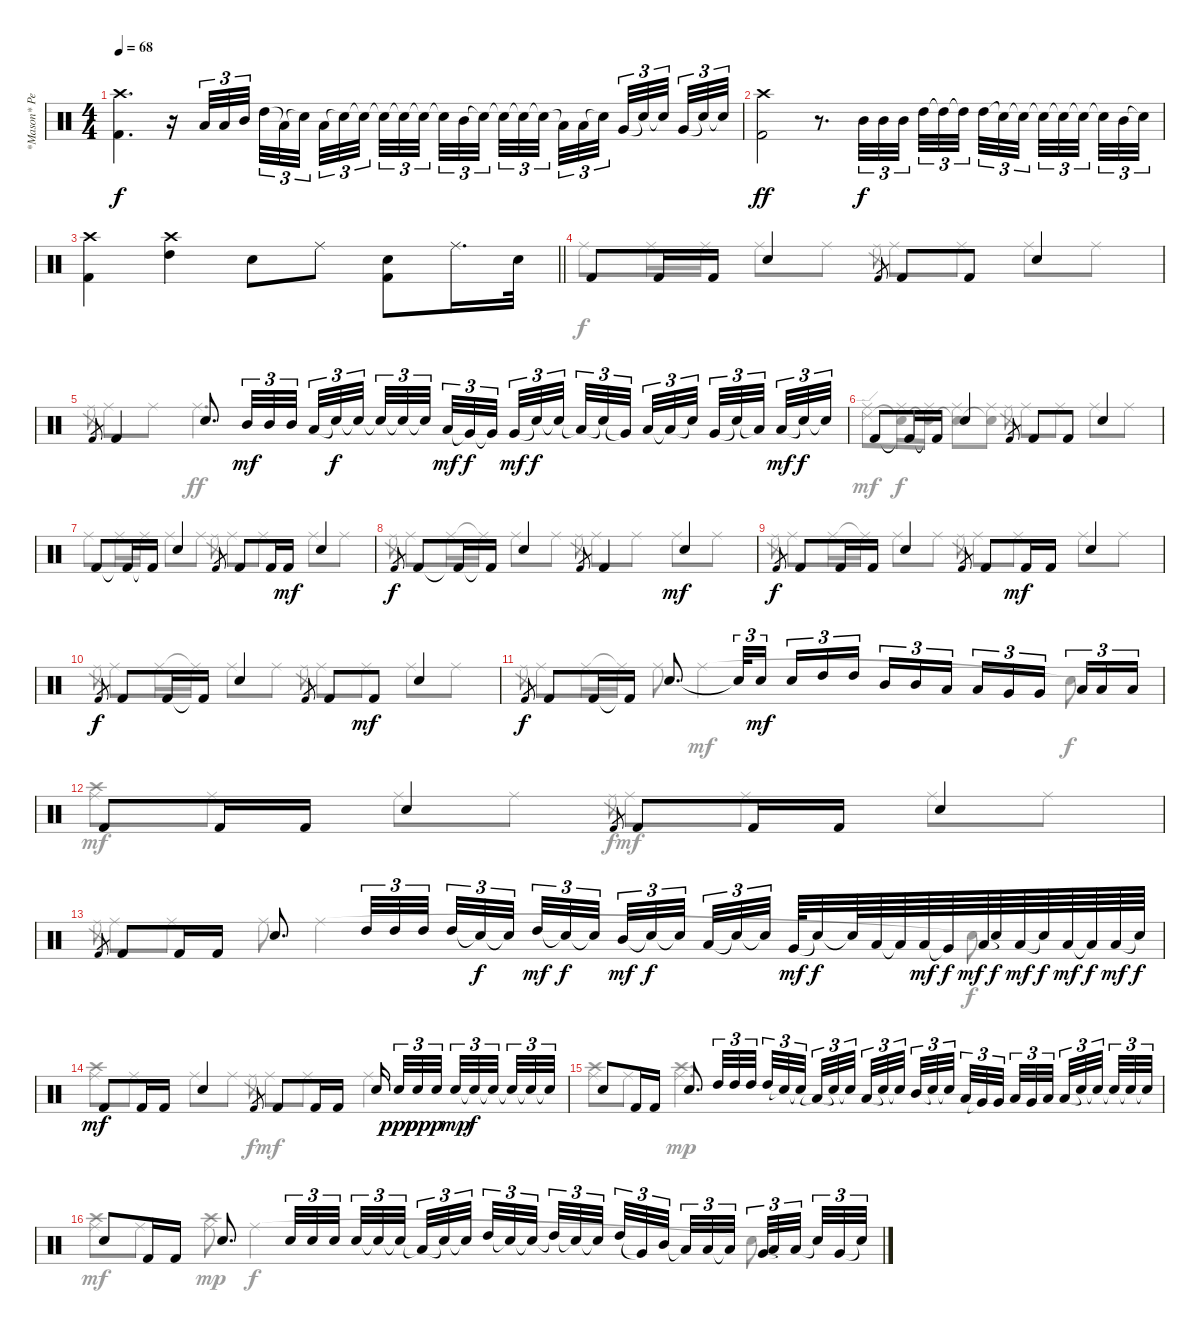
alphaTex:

\track ("*Mason* Percussion" "*Mason* Pe") {instrument percussion}
\staff {score}
\articulation defaults
\voice
\ts (4 4)
\tempo 68
\clef neutral
\ks c
("Crash high (hit)" "Kick (hit) 2").4{d dy f} r.16 "Low Tom (hit)".32{tu (3 2)} "Low Tom (hit)".32{tu (3 2)} "Mid Tom (hit)".32{tu (3 2)} "High Tom (hit)".32{tu (3 2)} "Low Tom (hit)"{t}.32{tu (3 2)} "Snare (hit)"{t}.32{tu (3 2) beam splitsecondary} "Low Tom (hit)".32{tu (3 2)} "Snare (hit)"{t}.32{tu (3 2)} "Snare (hit)"{t}.32{tu (3 2) beam splitsecondary} "Snare (hit)"{t}.32{tu (3 2)} "Snare (hit)"{t}.32{tu (3 2)} "Snare (hit)"{t}.32{tu (3 2) beam splitsecondary} "Snare (hit)"{t}.32{tu (3 2)} "Mid Tom (hit)".32{tu (3 2)} "Snare (hit)"{t}.32{tu (3 2)} "Snare (hit)"{t}.32{tu (3 2)} "Snare (hit)"{t}.32{tu (3 2)} "Snare (hit)"{t}.32{tu (3 2) beam splitsecondary} "Low Tom (hit)"{t}.32{tu (3 2)} "Low Tom (hit)".32{tu (3 2)} "Snare (hit)"{t}.32{tu (3 2) beam splitsecondary} "Very Low Tom (hit)".32{tu (3 2)} "Snare (hit)"{t}.32{tu (3 2)} "Snare (hit)"{t}.32{tu (3 2) beam splitsecondary} "Very Low Tom (hit)".32{tu (3 2)} "Snare (hit)"{t}.32{tu (3 2)} "Snare (hit)"{t}.32{tu (3 2)} |
("Crash high (hit)" "Kick (hit) 2").2{dy ff} r.8{d} "Mid Tom (hit)".32{tu (3 2) dy f} "Mid Tom (hit)".32{tu (3 2)} "Mid Tom (hit)".32{tu (3 2)} "High Tom (hit)".32{tu (3 2)} "High Tom (hit)"{t}.32{tu (3 2)} "High Tom (hit)"{t}.32{tu (3 2) beam splitsecondary} "High Tom (hit)".32{tu (3 2)} "Snare (hit)"{t}.32{tu (3 2)} "Snare (hit)"{t}.32{tu (3 2) beam splitsecondary} "Snare (hit)"{t}.32{tu (3 2)} "Snare (hit)"{t}.32{tu (3 2)} "Snare (hit)"{t}.32{tu (3 2) beam splitsecondary} "Snare (hit)"{t}.32{tu (3 2)} "Mid Tom (hit)".32{tu (3 2)} "Snare (hit)"{t}.32{tu (3 2)} |
\barLineRight lightlight
("Crash high (hit)" "Kick (hit) 2").4{volume 13} ("Crash high (hit)" "High Tom (hit)").4 "Snare (hit) 2".8 "Ride (middle)".8 ("Snare (hit) 2" "Kick (hit) 2").8 "Ride (middle)".16{d} "Snare (hit) 2".32 |
"Kick (hit) 2".8 "Kick (hit) 2".16 "Kick (hit) 2".16 "Snare (hit) 2".4 "Kick (hit) 2".8{gr} "Kick (hit) 2".8 "Kick (hit) 2".8 "Snare (hit) 2".4 |
"Kick (hit) 2".8{gr} "Kick (hit) 2".4 "Snare (hit) 2".8{d} "Mid Tom (hit)".32{tu (3 2) dy mf} "Mid Tom (hit)".32{tu (3 2)} "Mid Tom (hit)".32{tu (3 2)} "Low Tom (hit)".32{tu (3 2)} "Snare (hit)"{t}.32{tu (3 2) dy f} "Snare (hit)"{t}.32{tu (3 2) beam splitsecondary} "Snare (hit)"{t}.32{tu (3 2)} "Snare (hit)"{t}.32{tu (3 2)} "Snare (hit)"{t}.32{tu (3 2) beam splitsecondary} "Low Tom (hit)".32{tu (3 2) dy mf} "Very Low Tom (hit)"{t}.32{tu (3 2) dy f} "Very Low Tom (hit)"{t}.32{tu (3 2) beam splitsecondary} "Very Low Tom (hit)".32{tu (3 2) dy mf} "Snare (hit)"{t}.32{tu (3 2) dy f} "Snare (hit)"{t}.32{tu (3 2)} "Low Tom (hit)"{t}.32{tu (3 2)} "Snare (hit)"{t}.32{tu (3 2)} "Very Low Tom (hit)"{t}.32{tu (3 2) beam splitsecondary} "Low Tom (hit)".32{tu (3 2)} "Low Tom (hit)"{t}.32{tu (3 2)} "Snare (hit)"{t}.32{tu (3 2) beam splitsecondary} "Very Low Tom (hit)".32{tu (3 2)} "Snare (hit)"{t}.32{tu (3 2)} "Low Floor Tom (hit)"{t}.32{tu (3 2) beam splitsecondary} "Low Floor Tom (hit)".32{tu (3 2) dy mf} "Snare (hit)"{t}.32{tu (3 2) dy f} "Snare (hit)"{t}.32{tu (3 2)} |
"Kick (hit) 2".8 "Kick (hit) 2"{t}.16 "Kick (hit) 2"{t}.16 "Snare (hit) 2".4 "Kick (hit) 2".8{gr} "Kick (hit) 2".8 "Kick (hit) 2".8 "Snare (hit) 2".4 |
"Kick (hit) 2".8 "Kick (hit) 2"{t}.16 "Kick (hit) 2"{t}.16 "Snare (hit) 2".4 "Kick (hit) 2".8{gr} "Kick (hit) 2".8 "Kick (hit) 2".16 "Kick (hit) 2".16{dy mf} "Snare (hit) 2".4 |
"Kick (hit) 2".8{gr dy f} "Kick (hit) 2".8 "Kick (hit) 2"{t}.16 "Kick (hit) 2"{t}.16 "Snare (hit) 2".4 "Kick (hit) 2".8{gr} "Kick (hit) 2".4 "Snare (hit) 2".4{dy mf} |
"Kick (hit) 2".8{gr dy f} "Kick (hit) 2".8 "Kick (hit) 2".16 "Kick (hit) 2".16 "Snare (hit) 2".4 "Kick (hit) 2".8{gr} "Kick (hit) 2".8 "Kick (hit) 2".16{dy mf} "Kick (hit) 2".16 "Snare (hit) 2".4 |
"Kick (hit) 2".8{gr dy f} "Kick (hit) 2".8 "Kick (hit) 2".16 "Kick (hit) 2"{t}.16 "Snare (hit) 2".4 "Kick (hit) 2".8{gr} "Kick (hit) 2".8 "Kick (hit) 2".8{dy mf} "Snare (hit) 2".4 |
"Kick (hit) 2".8{gr dy f} "Kick (hit) 2".8 "Kick (hit) 2".16 "Kick (hit) 2"{t}.16 "Snare (hit) 2".8{d} "Snare (hit) 2"{t}.32{tu (3 2)} "Snare (hit) 2".16{tu (3 2) dy mf} "Snare (hit) 2".16{tu (3 2)} "High Tom (hit)".16{tu (3 2)} "High Tom (hit)".16{tu (3 2) beam splitsecondary} "Mid Tom (hit)".16{tu (3 2)} "Mid Tom (hit)".16{tu (3 2)} "Low Tom (hit)".16{tu (3 2)} "Low Tom (hit)".16{tu (3 2)} "Very Low Tom (hit)".16{tu (3 2)} "Very Low Tom (hit)".16{tu (3 2) beam splitsecondary} "Low Floor Tom (hit)".16{tu (3 2)} "Low Floor Tom (hit)".16{tu (3 2)} "Low Floor Tom (hit)".16{tu (3 2)} |
"Kick (hit) 2".8 "Kick (hit) 2".16 "Kick (hit) 2".16 "Snare (hit) 2".4 "Kick (hit) 2".8{gr} "Kick (hit) 2".8 "Kick (hit) 2".16 "Kick (hit) 2".16 "Snare (hit) 2".4 |
"Kick (hit) 2".8{gr} "Kick (hit) 2".8 "Kick (hit) 2".16 "Kick (hit) 2".16 "Snare (hit) 2".8{d} "High Tom (hit)".32{tu (3 2)} "High Tom (hit)".32{tu (3 2)} "High Tom (hit)".32{tu (3 2)} "High Tom (hit)".32{tu (3 2)} "Snare (hit)"{t}.32{tu (3 2) dy f} "Snare (hit)"{t}.32{tu (3 2) beam splitsecondary} "High Tom (hit)".32{tu (3 2) dy mf} "Snare (hit)"{t}.32{tu (3 2) dy f} "Snare (hit)"{t}.32{tu (3 2) beam splitsecondary} "Mid Tom (hit)".32{tu (3 2) dy mf} "Snare (hit)"{t}.32{tu (3 2) dy f} "Snare (hit)"{t}.32{tu (3 2) beam splitsecondary} "Low Tom (hit)".32{tu (3 2)} "Snare (hit)"{t}.32{tu (3 2)} "Snare (hit)"{t}.32{tu (3 2)} "Very Low Tom (hit)".64{dy mf} "Snare (hit)"{t}.32{dy f} "Snare (hit)"{t}.64 "Low Floor Tom (hit)".64 "Low Floor Tom (hit)"{t}.64 "Low Floor Tom (hit)".64{dy mf} "Very Low Tom (hit)"{t}.64{dy f} "Low Floor Tom (hit)".64{dy mf} "Snare (hit)"{t}.64{dy f} "Low Floor Tom (hit)".64{dy mf} "Snare (hit)"{t}.64{dy f} "Low Floor Tom (hit)".64{dy mf} "Low Floor Tom (hit)"{t}.64{dy f} "Low Floor Tom (hit)".64{dy mf} "Snare (hit)"{t}.64{dy f} |
"Kick (hit) 2".8{dy mf} "Kick (hit) 2".16 "Kick (hit) 2".16 "Snare (hit) 2".4 "Kick (hit) 2".8{gr} "Kick (hit) 2".8 "Kick (hit) 2".16 "Kick (hit) 2".16 "Snare (hit) 2".16{beam splitsecondary} "Snare (hit) 2".32{tu (3 2) dy ppp} "Snare (hit) 2".32{tu (3 2) dy pp} "Snare (hit) 2".32{tu (3 2) dy p beam splitsecondary} "Snare (hit) 2".32{tu (3 2) dy mp} "Snare (hit)"{t}.32{tu (3 2) dy f} "Snare (hit)"{t}.32{tu (3 2) beam splitsecondary} "Snare (hit)"{t}.32{tu (3 2)} "Snare (hit)"{t}.32{tu (3 2)} "Snare (hit)"{t}.32{tu (3 2)} |
"Snare (hit) 2".8 "Kick (hit) 2".16 "Kick (hit) 2".16 "Snare (hit) 2".8{d} "High Tom (hit)".32{tu (3 2)} "High Tom (hit)".32{tu (3 2)} "High Tom (hit)".32{tu (3 2)} "High Tom (hit)".32{tu (3 2)} "Snare (hit)"{t}.32{tu (3 2)} "Snare (hit)"{t}.32{tu (3 2) beam splitsecondary} "Low Tom (hit)"{t}.32{tu (3 2)} "Snare (hit)"{t}.32{tu (3 2)} "Snare (hit)"{t}.32{tu (3 2) beam splitsecondary} "Low Tom (hit)".32{tu (3 2)} "Snare (hit)"{t}.32{tu (3 2)} "Snare (hit)"{t}.32{tu (3 2) beam splitsecondary} "Mid Tom (hit)".32{tu (3 2)} "Snare (hit)"{t}.32{tu (3 2)} "Snare (hit)"{t}.32{tu (3 2)} "Low Tom (hit)".32{tu (3 2)} "Very Low Tom (hit)"{t}.32{tu (3 2)} "Very Low Tom (hit)".32{tu (3 2) beam splitsecondary} "Low Floor Tom (hit)".32{tu (3 2)} "Very Low Tom (hit)".32{tu (3 2)} "Low Tom (hit)".32{tu (3 2) beam splitsecondary} "Low Floor Tom (hit)".32{tu (3 2)} "Snare (hit)"{t}.32{tu (3 2)} "Snare (hit)"{t}.32{tu (3 2) beam splitsecondary} "Snare (hit)"{t}.32{tu (3 2)} "Snare (hit)"{t}.32{tu (3 2)} "Snare (hit)"{t}.32{tu (3 2)} |
"Snare (hit) 2".8 "Kick (hit) 2".16 "Kick (hit) 2".16 "Snare (hit) 2".8{d} "Snare (hit) 2".32{tu (3 2)} "Snare (hit) 2".32{tu (3 2)} "Snare (hit) 2".32{tu (3 2)} "Snare (hit) 2".32{tu (3 2)} "Snare (hit)"{t}.32{tu (3 2)} "Snare (hit)"{t}.32{tu (3 2) beam splitsecondary} "Low Tom (hit)"{t}.32{tu (3 2)} "Snare (hit)"{t}.32{tu (3 2)} "Snare (hit)"{t}.32{tu (3 2) beam splitsecondary} "High Tom (hit)".32{tu (3 2)} "Snare (hit)"{t}.32{tu (3 2)} "Snare (hit)"{t}.32{tu (3 2) beam splitsecondary} "High Tom (hit)"{t}.32{tu (3 2)} "Snare (hit)"{t}.32{tu (3 2)} "Snare (hit)"{t}.32{tu (3 2)} "High Tom (hit)".32{tu (3 2)} "Very Low Tom (hit)"{t}.32{tu (3 2)} "Mid Tom (hit)".32{tu (3 2) beam splitsecondary} "Low Floor Tom (hit)"{t}.32{tu (3 2)} "Low Tom (hit)".32{tu (3 2)} "Low Tom (hit)"{t}.32{tu (3 2) beam splitsecondary} "Very Low Tom (hit)".32{tu (3 2)} "Low Floor Tom (hit)"{t}.32{tu (3 2)} "Low Tom (hit)".32{tu (3 2) beam splitsecondary} "Snare (hit)"{t}.32{tu (3 2)} "Very Low Tom (hit)".32{tu (3 2)} "Snare (hit)"{t}.32{tu (3 2)}
\voice
\clef neutral
\ottava regular
\simile none
\ks c
|
|
\barLineRight lightlight
|
"Ride (middle)".8 "Ride (middle)".16 "Ride (middle)".16 "Ride (middle)".8 "Ride (middle)".8 "Ride (middle)".8{gr} "Ride (middle)".8 "Ride (middle)".8 "Ride (middle)".8 "Ride (middle)".8 |
"Ride (middle)".8{gr} "Ride (middle)".8 "Ride (middle)".8 "Ride (middle)".2{d dy ff} |
("Ride (middle)" "Ride (edge) 2").8{dy mf} ("Ride (middle)" "Snare (hit)"{t}).16{dy f} ("Ride (middle)" "Snare (hit)"{t}).16 ("Ride (middle)" "Snare (hit)"{t}).8 ("Ride (middle)" "Snare (hit)"{t}).8 "Ride (middle)".8{gr} "Ride (middle)".8 "Ride (middle)".8 "Ride (middle)".8 "Ride (middle)".8 |
"Ride (middle)".8 "Ride (middle)".16 "Ride (middle)".16 "Ride (middle)".8 "Ride (middle)".8 "Ride (middle)".8{gr} "Ride (middle)".8 "Ride (middle)".8 "Ride (middle)".8 "Ride (middle)".8 |
"Ride (middle)".8{gr} "Ride (middle)".8 "Ride (middle)".16 "Ride (middle)"{t}.16 "Ride (middle)".8 "Ride (middle)".8 "Ride (middle)".8{gr} "Ride (middle)".8 "Ride (middle)".8 "Ride (middle)".8 "Ride (middle)".8 |
"Ride (middle)".8{gr} "Ride (middle)".8 "Ride (middle)".16 "Ride (middle)"{t}.16 "Ride (middle)".8 "Ride (middle)".8 "Ride (middle)".8{gr} "Ride (middle)".8 "Ride (middle)".8 "Ride (middle)".8 "Ride (middle)".8 |
"Ride (middle)".8{gr} "Ride (middle)".8 "Ride (middle)".16 "Ride (middle)"{t}.16 "Ride (middle)".8 "Ride (middle)".8 "Ride (middle)".8{gr} "Ride (middle)".8 "Ride (middle)".8 "Ride (middle)".8 "Ride (middle)".8 |
"Ride (middle)".8{gr} "Ride (middle)".8 "Ride (middle)".16 "Ride (middle)"{t}.16 "Ride (middle)".8 "Ride (middle)".2{dy mf} "Snare (hit)"{t}.8{dy f} |
("Ride (middle)" "Crash high (hit)").8{dy mf} "Ride (middle)".8 "Ride (middle)".8 "Ride (middle)".8 "Ride (middle)".8{gr dy f} "Ride (middle)".8{dy mf} "Ride (middle)".8 "Ride (middle)".8 "Ride (middle)".8 |
"Ride (middle)".8{gr} "Ride (middle)".8 "Ride (middle)".8 "Ride (middle)".8 "Ride (middle)".2 "Snare (hit)"{t}.8{dy f} |
("Ride (middle)" "Crash high (hit)").8{dy mf} "Ride (middle)".8 "Ride (middle)".8 "Ride (middle)".8 "Ride (middle)".8{gr dy f} "Ride (middle)".8{dy mf} "Ride (middle)".8 "Ride (middle)".4 |
("Ride (middle)" "Crash high (hit)").8 "Ride (middle)".8 ("Ride (middle)" "Crash high (hit)").2{d dy mp} |
("Ride (middle)" "Crash high (hit)").8{dy mf} "Ride (middle)".8 ("Ride (middle)" "Crash high (hit)").8{dy mp} "Ride (middle)".2{dy f} "Snare (hit)"{t}.8
